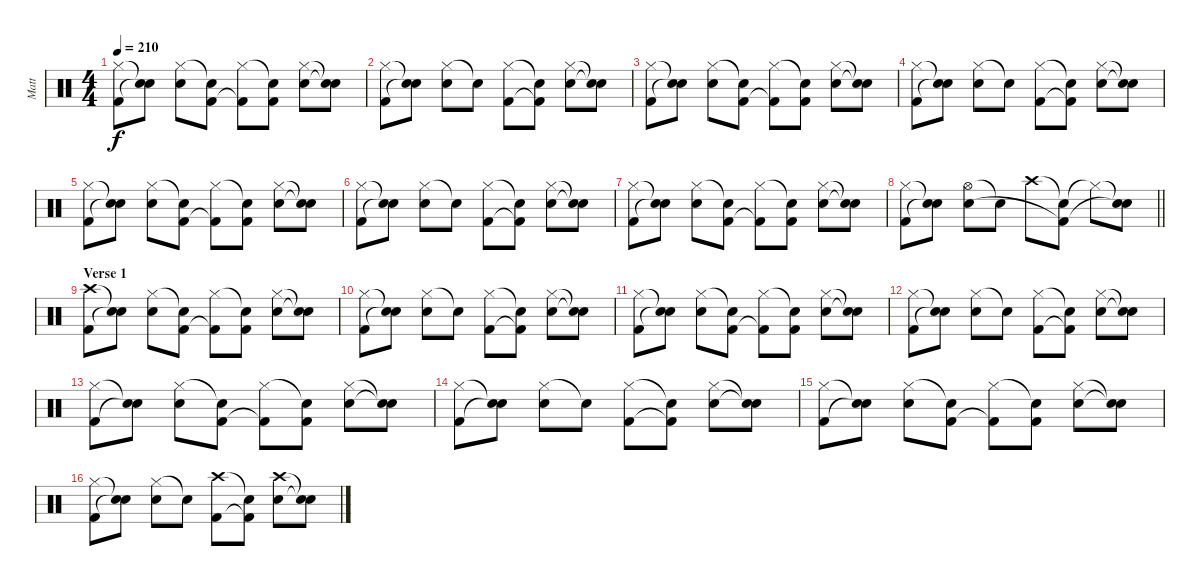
\track ("Matt" "Matt") {instrument percussion}
\staff {score}
\articulation defaults
\ts (4 4)
\tempo 210
\clef neutral
\ks c
("Hi-Hat (closed)" "Kick (hit) 2").8{dy f} ("Snare (hit)"{t} "Snare (hit)"{t}).8 ("Hi-Hat (closed)" "Snare (hit) 2").8 ("Snare (hit)"{t} "Kick (hit) 2").8 ("Hi-Hat (closed)" "Kick (hit) 2"{t}).8 ("Snare (hit)"{t} "Kick (hit) 2").8 ("Hi-Hat (closed)" "Snare (hit) 2").8 ("Snare (hit)"{t} "Snare (hit)"{t}).8 |
("Hi-Hat (closed)" "Kick (hit) 2").8 ("Snare (hit)"{t} "Snare (hit)"{t}).8 ("Hi-Hat (closed)" "Snare (hit) 2").8 "Snare (hit)"{t}.8 ("Hi-Hat (closed)" "Kick (hit) 2").8 ("Snare (hit)"{t} "Kick (hit) 2"{t}).8 ("Hi-Hat (closed)" "Snare (hit) 2").8 ("Snare (hit)"{t} "Snare (hit)"{t}).8 |
("Hi-Hat (closed)" "Kick (hit) 2").8 ("Snare (hit)"{t} "Snare (hit)"{t}).8 ("Hi-Hat (closed)" "Snare (hit) 2").8 ("Snare (hit)"{t} "Kick (hit) 2").8 ("Hi-Hat (closed)" "Kick (hit) 2"{t}).8 ("Snare (hit)"{t} "Kick (hit) 2").8 ("Hi-Hat (closed)" "Snare (hit) 2").8 ("Snare (hit)"{t} "Snare (hit)"{t}).8 |
("Hi-Hat (closed)" "Kick (hit) 2").8 ("Snare (hit)"{t} "Snare (hit)"{t}).8 ("Hi-Hat (closed)" "Snare (hit) 2").8 "Snare (hit)"{t}.8 ("Hi-Hat (closed)" "Kick (hit) 2").8 ("Snare (hit)"{t} "Kick (hit) 2"{t}).8 ("Hi-Hat (closed)" "Snare (hit) 2").8 ("Snare (hit)"{t} "Snare (hit)"{t}).8 |
("Hi-Hat (closed)" "Kick (hit) 2").8 ("Snare (hit)"{t} "Snare (hit)"{t}).8 ("Hi-Hat (closed)" "Snare (hit) 2").8 ("Snare (hit)"{t} "Kick (hit) 2").8 ("Hi-Hat (closed)" "Kick (hit) 2"{t}).8 ("Snare (hit)"{t} "Kick (hit) 2").8 ("Hi-Hat (closed)" "Snare (hit) 2").8 ("Snare (hit)"{t} "Snare (hit)"{t}).8 |
("Hi-Hat (closed)" "Kick (hit) 2").8 ("Snare (hit)"{t} "Snare (hit)"{t}).8 ("Hi-Hat (closed)" "Snare (hit) 2").8 "Snare (hit)"{t}.8 ("Hi-Hat (closed)" "Kick (hit) 2").8 ("Snare (hit)"{t} "Kick (hit) 2"{t}).8 ("Hi-Hat (closed)" "Snare (hit) 2").8 ("Snare (hit)"{t} "Snare (hit)"{t}).8 |
("Hi-Hat (closed)" "Kick (hit) 2").8 ("Snare (hit)"{t} "Snare (hit)"{t}).8 ("Hi-Hat (closed)" "Snare (hit) 2").8 ("Snare (hit)"{t} "Kick (hit) 2").8 ("Hi-Hat (closed)" "Kick (hit) 2"{t}).8 ("Snare (hit)"{t} "Kick (hit) 2").8 ("Hi-Hat (closed)" "Snare (hit) 2").8 ("Snare (hit)"{t} "Snare (hit)"{t}).8 |
\barLineRight lightlight
("Hi-Hat (closed)" "Kick (hit) 2").8 ("Snare (hit)"{t} "Snare (hit)"{t}).8 ("Hi-Hat (open)" "Snare (hit) 2").8 "Snare (hit)"{t}.8 "Crash high (hit)".8 ("Snare (hit)"{t} "Kick (hit) 2"{t}).8 "Hi-Hat (closed)"{t}.8 ("Snare (hit)"{t} "Snare (hit)"{t}).8 |
\section ("" "Verse 1")
("Crash high (hit)" "Kick (hit) 2").8 ("Snare (hit)"{t} "Snare (hit)"{t}).8 ("Hi-Hat (closed)" "Snare (hit) 2").8 ("Snare (hit)"{t} "Kick (hit) 2").8 ("Hi-Hat (closed)" "Kick (hit) 2"{t}).8 ("Snare (hit)"{t} "Kick (hit) 2").8 ("Hi-Hat (closed)" "Snare (hit) 2").8 ("Snare (hit)"{t} "Snare (hit)"{t}).8 |
("Hi-Hat (closed)" "Kick (hit) 2").8 ("Snare (hit)"{t} "Snare (hit)"{t}).8 ("Hi-Hat (closed)" "Snare (hit) 2").8 "Snare (hit)"{t}.8 ("Hi-Hat (closed)" "Kick (hit) 2").8 ("Snare (hit)"{t} "Kick (hit) 2"{t}).8 ("Hi-Hat (closed)" "Snare (hit) 2").8 ("Snare (hit)"{t} "Snare (hit)"{t}).8 |
("Hi-Hat (closed)" "Kick (hit) 2").8 ("Snare (hit)"{t} "Snare (hit)"{t}).8 ("Hi-Hat (closed)" "Snare (hit) 2").8 ("Snare (hit)"{t} "Kick (hit) 2").8 ("Hi-Hat (closed)" "Kick (hit) 2"{t}).8 ("Snare (hit)"{t} "Kick (hit) 2").8 ("Hi-Hat (closed)" "Snare (hit) 2").8 ("Snare (hit)"{t} "Snare (hit)"{t}).8 |
("Hi-Hat (closed)" "Kick (hit) 2").8 ("Snare (hit)"{t} "Snare (hit)"{t}).8 ("Hi-Hat (closed)" "Snare (hit) 2").8 "Snare (hit)"{t}.8 ("Hi-Hat (closed)" "Kick (hit) 2").8 ("Snare (hit)"{t} "Kick (hit) 2"{t}).8 ("Hi-Hat (closed)" "Snare (hit) 2").8 ("Snare (hit)"{t} "Snare (hit)"{t}).8 |
("Hi-Hat (closed)" "Kick (hit) 2").8 ("Snare (hit)"{t} "Snare (hit)"{t}).8 ("Hi-Hat (closed)" "Snare (hit) 2").8 ("Snare (hit)"{t} "Kick (hit) 2").8 ("Hi-Hat (closed)" "Kick (hit) 2"{t}).8 ("Snare (hit)"{t} "Kick (hit) 2").8 ("Hi-Hat (closed)" "Snare (hit) 2").8 ("Snare (hit)"{t} "Snare (hit)"{t}).8 |
("Hi-Hat (closed)" "Kick (hit) 2").8 ("Snare (hit)"{t} "Snare (hit)"{t}).8 ("Hi-Hat (closed)" "Snare (hit) 2").8 "Snare (hit)"{t}.8 ("Hi-Hat (closed)" "Kick (hit) 2").8 ("Snare (hit)"{t} "Kick (hit) 2"{t}).8 ("Hi-Hat (closed)" "Snare (hit) 2").8 ("Snare (hit)"{t} "Snare (hit)"{t}).8 |
("Hi-Hat (closed)" "Kick (hit) 2").8 ("Snare (hit)"{t} "Snare (hit)"{t}).8 ("Hi-Hat (closed)" "Snare (hit) 2").8 ("Snare (hit)"{t} "Kick (hit) 2").8 ("Hi-Hat (closed)" "Kick (hit) 2"{t}).8 ("Snare (hit)"{t} "Kick (hit) 2").8 ("Hi-Hat (closed)" "Snare (hit) 2").8 ("Snare (hit)"{t} "Snare (hit)"{t}).8 |
("Hi-Hat (closed)" "Kick (hit) 2").8 ("Snare (hit)"{t} "Snare (hit)"{t}).8 ("Hi-Hat (closed)" "Snare (hit) 2").8 "Snare (hit)"{t}.8 ("Crash high (hit)" "Kick (hit) 2").8 ("Snare (hit)"{t} "Kick (hit) 2"{t}).8 ("Crash high (hit)" "Snare (hit) 2").8 ("Snare (hit)"{t} "Snare (hit)"{t}).8
